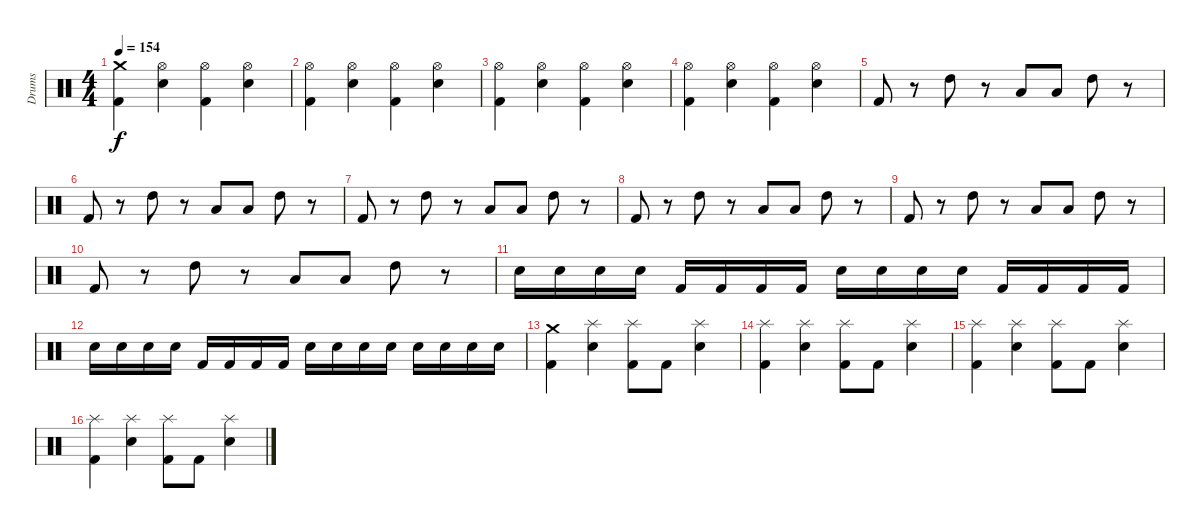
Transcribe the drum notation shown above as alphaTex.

\track ("Drums" "Drums") {instrument percussion}
\staff {score}
\articulation defaults
\ts (4 4)
\tempo 154
\clef neutral
\ks c
("Crash medium (hit)" "Kick (hit) 2").4{dy f} ("Hi-Hat (open)" "Electric Snare (hit)").4 ("Hi-Hat (open)" "Kick (hit) 2").4 ("Hi-Hat (open)" "Electric Snare (hit)").4 |
("Hi-Hat (open)" "Kick (hit) 2").4 ("Hi-Hat (open)" "Electric Snare (hit)").4 ("Hi-Hat (open)" "Kick (hit) 2").4 ("Hi-Hat (open)" "Electric Snare (hit)").4 |
("Kick (hit) 2" "Hi-Hat (open)").4 ("Electric Snare (hit)" "Hi-Hat (open)").4 ("Kick (hit) 2" "Hi-Hat (open)").4 ("Electric Snare (hit)" "Hi-Hat (open)").4 |
("Kick (hit) 2" "Hi-Hat (open)").4 ("Electric Snare (hit)" "Hi-Hat (open)").4 ("Kick (hit) 2" "Hi-Hat (open)").4 ("Electric Snare (hit)" "Hi-Hat (open)").4 |
"Kick (hit) 2".8 r.8 "High Tom (hit)".8 r.8 "Low Floor Tom (hit)".8 "Low Floor Tom (hit)".8 "High Tom (hit)".8 r.8 |
"Kick (hit) 2".8 r.8 "High Tom (hit)".8 r.8 "Low Floor Tom (hit)".8 "Low Floor Tom (hit)".8 "High Tom (hit)".8 r.8 |
"Kick (hit) 2".8 r.8 "High Tom (hit)".8 r.8 "Low Floor Tom (hit)".8 "Low Floor Tom (hit)".8 "High Tom (hit)".8 r.8 |
"Kick (hit) 2".8 r.8 "High Tom (hit)".8 r.8 "Low Floor Tom (hit)".8 "Low Floor Tom (hit)".8 "High Tom (hit)".8 r.8 |
"Kick (hit) 2".8 r.8 "High Tom (hit)".8 r.8 "Low Floor Tom (hit)".8 "Low Floor Tom (hit)".8 "High Tom (hit)".8 r.8 |
"Kick (hit) 2".8 r.8 "High Tom (hit)".8 r.8 "Low Floor Tom (hit)".8 "Low Floor Tom (hit)".8 "High Tom (hit)".8 r.8 |
"Snare (hit) 2".16 "Snare (hit) 2".16 "Snare (hit) 2".16 "Snare (hit) 2".16 "Kick (hit) 2".16 "Kick (hit) 2".16 "Kick (hit) 2".16 "Kick (hit) 2".16 "Snare (hit) 2".16 "Snare (hit) 2".16 "Snare (hit) 2".16 "Snare (hit) 2".16 "Kick (hit) 2".16 "Kick (hit) 2".16 "Kick (hit) 2".16 "Kick (hit) 2".16 |
"Snare (hit) 2".16 "Snare (hit) 2".16 "Snare (hit) 2".16 "Snare (hit) 2".16 "Kick (hit) 2".16 "Kick (hit) 2".16 "Kick (hit) 2".16 "Kick (hit) 2".16 "Snare (hit) 2".16 "Snare (hit) 2".16 "Snare (hit) 2".16 "Snare (hit) 2".16 "Electric Snare (hit)".16 "Electric Snare (hit)".16 "Electric Snare (hit)".16 "Snare (hit) 2".16 |
("Kick (hit) 2" "Crash medium (hit)").4 ("Splash (hit)" "Electric Snare (hit)").4 ("Kick (hit) 2" "Splash (hit)").8 "Kick (hit) 2".8 ("Splash (hit)" "Electric Snare (hit)").4 |
("Kick (hit) 2" "Splash (hit)").4 ("Splash (hit)" "Electric Snare (hit)").4 ("Kick (hit) 2" "Splash (hit)").8 "Kick (hit) 2".8 ("Splash (hit)" "Electric Snare (hit)").4 |
("Kick (hit) 2" "Splash (hit)").4 ("Electric Snare (hit)" "Splash (hit)").4 ("Kick (hit) 2" "Splash (hit)").8 "Kick (hit) 2".8 ("Electric Snare (hit)" "Splash (hit)").4 |
("Kick (hit) 2" "Splash (hit)").4 ("Electric Snare (hit)" "Splash (hit)").4 ("Kick (hit) 2" "Splash (hit)").8 "Kick (hit) 2".8 ("Electric Snare (hit)" "Splash (hit)").4
